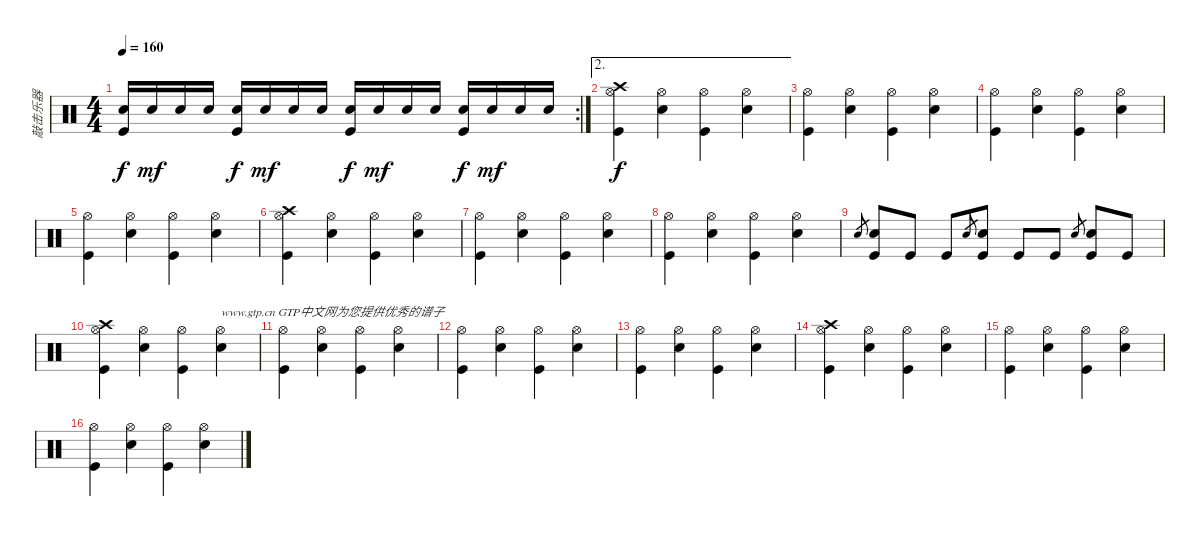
\track ("敲击乐器" "敲击乐器") {instrument percussion}
\staff {score}
\articulation defaults
\rc 2
\ts (4 4)
\tempo 160
\clef neutral
\ks c
("Snare (hit) 2" "Kick (hit)").16{dy f} "Snare (hit) 2".16{dy mf} "Snare (hit) 2".16 "Snare (hit) 2".16 ("Snare (hit) 2" "Kick (hit)").16{dy f} "Snare (hit) 2".16{dy mf} "Snare (hit) 2".16 "Snare (hit) 2".16 ("Snare (hit) 2" "Kick (hit)").16{dy f} "Snare (hit) 2".16{dy mf} "Snare (hit) 2".16 "Snare (hit) 2".16 ("Snare (hit) 2" "Kick (hit)").16{dy f} "Snare (hit) 2".16{dy mf} "Snare (hit) 2".16 "Snare (hit) 2".16 |
\ae 2
("Crash high (hit)" "Hi-Hat (open)" "Kick (hit)").4{dy f} ("Snare (hit) 2" "Hi-Hat (open)").4 ("Hi-Hat (open)" "Kick (hit)").4 ("Snare (hit) 2" "Hi-Hat (open)").4 |
("Hi-Hat (open)" "Kick (hit)").4 ("Snare (hit) 2" "Hi-Hat (open)").4 ("Hi-Hat (open)" "Kick (hit)").4 ("Snare (hit) 2" "Hi-Hat (open)").4 |
("Hi-Hat (open)" "Kick (hit)").4 ("Snare (hit) 2" "Hi-Hat (open)").4 ("Hi-Hat (open)" "Kick (hit)").4 ("Snare (hit) 2" "Hi-Hat (open)").4 |
("Hi-Hat (open)" "Kick (hit)").4 ("Snare (hit) 2" "Hi-Hat (open)").4 ("Hi-Hat (open)" "Kick (hit)").4 ("Snare (hit) 2" "Hi-Hat (open)").4 |
("Crash high (hit)" "Hi-Hat (open)" "Kick (hit)").4 ("Snare (hit) 2" "Hi-Hat (open)").4 ("Hi-Hat (open)" "Kick (hit)").4 ("Snare (hit) 2" "Hi-Hat (open)").4 |
("Hi-Hat (open)" "Kick (hit)").4 ("Snare (hit) 2" "Hi-Hat (open)").4 ("Hi-Hat (open)" "Kick (hit)").4 ("Snare (hit) 2" "Hi-Hat (open)").4 |
("Hi-Hat (open)" "Kick (hit)").4 ("Snare (hit) 2" "Hi-Hat (open)").4 ("Hi-Hat (open)" "Kick (hit)").4 ("Snare (hit) 2" "Hi-Hat (open)").4 |
"Snare (hit) 2".8{gr} ("Snare (hit) 2" "Kick (hit)").8 "Kick (hit)".8 "Kick (hit)".8 "Snare (hit) 2".8{gr} ("Snare (hit) 2" "Kick (hit)").8 "Kick (hit)".8 "Kick (hit)".8 "Snare (hit) 2".8{gr} ("Snare (hit) 2" "Kick (hit)").8 "Kick (hit)".8 |
("Crash high (hit)" "Hi-Hat (open)" "Kick (hit)").4 ("Snare (hit) 2" "Hi-Hat (open)").4 ("Hi-Hat (open)" "Kick (hit)").4 ("Snare (hit) 2" "Hi-Hat (open)").4{txt "www.gtp.cn GTP中文网为您提供优秀的谱子"} |
("Hi-Hat (open)" "Kick (hit)").4 ("Snare (hit) 2" "Hi-Hat (open)").4 ("Hi-Hat (open)" "Kick (hit)").4 ("Snare (hit) 2" "Hi-Hat (open)").4 |
("Hi-Hat (open)" "Kick (hit)").4 ("Snare (hit) 2" "Hi-Hat (open)").4 ("Hi-Hat (open)" "Kick (hit)").4 ("Snare (hit) 2" "Hi-Hat (open)").4 |
("Hi-Hat (open)" "Kick (hit)").4 ("Snare (hit) 2" "Hi-Hat (open)").4 ("Hi-Hat (open)" "Kick (hit)").4 ("Snare (hit) 2" "Hi-Hat (open)").4 |
("Crash high (hit)" "Hi-Hat (open)" "Kick (hit)").4 ("Snare (hit) 2" "Hi-Hat (open)").4 ("Hi-Hat (open)" "Kick (hit)").4 ("Snare (hit) 2" "Hi-Hat (open)").4 |
("Hi-Hat (open)" "Kick (hit)").4 ("Snare (hit) 2" "Hi-Hat (open)").4 ("Hi-Hat (open)" "Kick (hit)").4 ("Snare (hit) 2" "Hi-Hat (open)").4 |
("Hi-Hat (open)" "Kick (hit)").4 ("Snare (hit) 2" "Hi-Hat (open)").4 ("Hi-Hat (open)" "Kick (hit)").4 ("Snare (hit) 2" "Hi-Hat (open)").4
